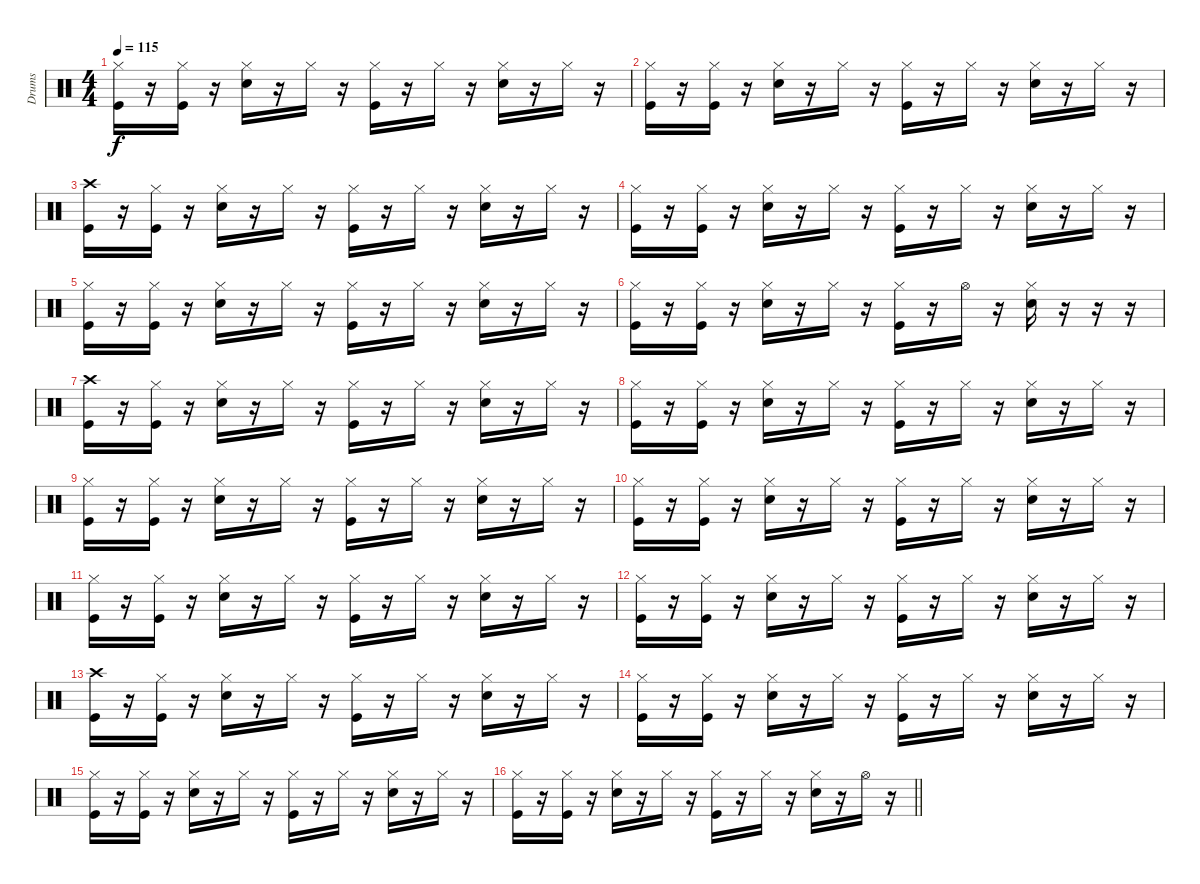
\track ("Drums" "Drums") {instrument percussion}
\staff {score}
\articulation defaults
\ts (4 4)
\tempo 115
\clef neutral
\ks c
("Hi-Hat (closed)" "Kick (hit)").16{dy f} r.16 ("Hi-Hat (closed)" "Kick (hit)").16 r.16 ("Hi-Hat (closed)" "Snare (hit) 2").16 r.16 "Hi-Hat (closed)".16 r.16 ("Hi-Hat (closed)" "Kick (hit)").16 r.16 "Hi-Hat (closed)".16 r.16 ("Hi-Hat (closed)" "Snare (hit) 2").16 r.16 "Hi-Hat (closed)".16 r.16 |
("Hi-Hat (closed)" "Kick (hit)").16 r.16 ("Hi-Hat (closed)" "Kick (hit)").16 r.16 ("Hi-Hat (closed)" "Snare (hit) 2").16 r.16 "Hi-Hat (closed)".16 r.16 ("Hi-Hat (closed)" "Kick (hit)").16 r.16 "Hi-Hat (closed)".16 r.16 ("Hi-Hat (closed)" "Snare (hit) 2").16 r.16 "Hi-Hat (closed)".16 r.16 |
("Crash high (hit)" "Kick (hit)").16 r.16 ("Hi-Hat (closed)" "Kick (hit)").16 r.16 ("Hi-Hat (closed)" "Snare (hit) 2").16 r.16 "Hi-Hat (closed)".16 r.16 ("Hi-Hat (closed)" "Kick (hit)").16 r.16 "Hi-Hat (closed)".16 r.16 ("Hi-Hat (closed)" "Snare (hit) 2").16 r.16 "Hi-Hat (closed)".16 r.16 |
("Hi-Hat (closed)" "Kick (hit)").16 r.16 ("Hi-Hat (closed)" "Kick (hit)").16 r.16 ("Hi-Hat (closed)" "Snare (hit) 2").16 r.16 "Hi-Hat (closed)".16 r.16 ("Hi-Hat (closed)" "Kick (hit)").16 r.16 "Hi-Hat (closed)".16 r.16 ("Hi-Hat (closed)" "Snare (hit) 2").16 r.16 "Hi-Hat (closed)".16 r.16 |
("Hi-Hat (closed)" "Kick (hit)").16 r.16 ("Hi-Hat (closed)" "Kick (hit)").16 r.16 ("Hi-Hat (closed)" "Snare (hit) 2").16 r.16 "Hi-Hat (closed)".16 r.16 ("Hi-Hat (closed)" "Kick (hit)").16 r.16 "Hi-Hat (closed)".16 r.16 ("Hi-Hat (closed)" "Snare (hit) 2").16 r.16 "Hi-Hat (closed)".16 r.16 |
("Hi-Hat (closed)" "Kick (hit)").16 r.16 ("Hi-Hat (closed)" "Kick (hit)").16 r.16 ("Hi-Hat (closed)" "Snare (hit) 2").16 r.16 "Hi-Hat (closed)".16 r.16 ("Hi-Hat (closed)" "Kick (hit)").16 r.16 "Hi-Hat (open)".16 r.16 ("Hi-Hat (closed)" "Snare (hit) 2").16 r.16 r.16 r.16 |
("Crash high (hit)" "Kick (hit)").16 r.16 ("Hi-Hat (closed)" "Kick (hit)").16 r.16 ("Hi-Hat (closed)" "Snare (hit) 2").16 r.16 "Hi-Hat (closed)".16 r.16 ("Hi-Hat (closed)" "Kick (hit)").16 r.16 "Hi-Hat (closed)".16 r.16 ("Hi-Hat (closed)" "Snare (hit) 2").16 r.16 "Hi-Hat (closed)".16 r.16 |
("Hi-Hat (closed)" "Kick (hit)").16 r.16 ("Hi-Hat (closed)" "Kick (hit)").16 r.16 ("Hi-Hat (closed)" "Snare (hit) 2").16 r.16 "Hi-Hat (closed)".16 r.16 ("Hi-Hat (closed)" "Kick (hit)").16 r.16 "Hi-Hat (closed)".16 r.16 ("Hi-Hat (closed)" "Snare (hit) 2").16 r.16 "Hi-Hat (closed)".16 r.16 |
("Hi-Hat (closed)" "Kick (hit)").16 r.16 ("Hi-Hat (closed)" "Kick (hit)").16 r.16 ("Hi-Hat (closed)" "Snare (hit) 2").16 r.16 "Hi-Hat (closed)".16 r.16 ("Hi-Hat (closed)" "Kick (hit)").16 r.16 "Hi-Hat (closed)".16 r.16 ("Hi-Hat (closed)" "Snare (hit) 2").16 r.16 "Hi-Hat (closed)".16 r.16 |
("Hi-Hat (closed)" "Kick (hit)").16 r.16 ("Hi-Hat (closed)" "Kick (hit)").16 r.16 ("Hi-Hat (closed)" "Snare (hit) 2").16 r.16 "Hi-Hat (closed)".16 r.16 ("Hi-Hat (closed)" "Kick (hit)").16 r.16 "Hi-Hat (closed)".16 r.16 ("Hi-Hat (closed)" "Snare (hit) 2").16 r.16 "Hi-Hat (closed)".16 r.16 |
("Hi-Hat (closed)" "Kick (hit)").16 r.16 ("Hi-Hat (closed)" "Kick (hit)").16 r.16 ("Hi-Hat (closed)" "Snare (hit) 2").16 r.16 "Hi-Hat (closed)".16 r.16 ("Hi-Hat (closed)" "Kick (hit)").16 r.16 "Hi-Hat (closed)".16 r.16 ("Hi-Hat (closed)" "Snare (hit) 2").16 r.16 "Hi-Hat (closed)".16 r.16 |
("Hi-Hat (closed)" "Kick (hit)").16 r.16 ("Hi-Hat (closed)" "Kick (hit)").16 r.16 ("Hi-Hat (closed)" "Snare (hit) 2").16 r.16 "Hi-Hat (closed)".16 r.16 ("Hi-Hat (closed)" "Kick (hit)").16 r.16 "Hi-Hat (closed)".16 r.16 ("Hi-Hat (closed)" "Snare (hit) 2").16 r.16 "Hi-Hat (closed)".16 r.16 |
("Crash high (hit)" "Kick (hit)").16 r.16 ("Hi-Hat (closed)" "Kick (hit)").16 r.16 ("Hi-Hat (closed)" "Snare (hit) 2").16 r.16 "Hi-Hat (closed)".16 r.16 ("Hi-Hat (closed)" "Kick (hit)").16 r.16 "Hi-Hat (closed)".16 r.16 ("Hi-Hat (closed)" "Snare (hit) 2").16 r.16 "Hi-Hat (closed)".16 r.16 |
("Hi-Hat (closed)" "Kick (hit)").16 r.16 ("Hi-Hat (closed)" "Kick (hit)").16 r.16 ("Hi-Hat (closed)" "Snare (hit) 2").16 r.16 "Hi-Hat (closed)".16 r.16 ("Hi-Hat (closed)" "Kick (hit)").16 r.16 "Hi-Hat (closed)".16 r.16 ("Hi-Hat (closed)" "Snare (hit) 2").16 r.16 "Hi-Hat (closed)".16 r.16 |
("Hi-Hat (closed)" "Kick (hit)").16 r.16 ("Hi-Hat (closed)" "Kick (hit)").16 r.16 ("Hi-Hat (closed)" "Snare (hit) 2").16 r.16 "Hi-Hat (closed)".16 r.16 ("Hi-Hat (closed)" "Kick (hit)").16 r.16 "Hi-Hat (closed)".16 r.16 ("Hi-Hat (closed)" "Snare (hit) 2").16 r.16 "Hi-Hat (closed)".16 r.16 |
\barLineRight lightlight
("Hi-Hat (closed)" "Kick (hit)").16 r.16 ("Hi-Hat (closed)" "Kick (hit)").16 r.16 ("Hi-Hat (closed)" "Snare (hit) 2").16 r.16 "Hi-Hat (closed)".16 r.16 ("Hi-Hat (closed)" "Kick (hit)").16 r.16 "Hi-Hat (closed)".16 r.16 ("Hi-Hat (closed)" "Snare (hit) 2").16 r.16 "Hi-Hat (open)".16 r.16
